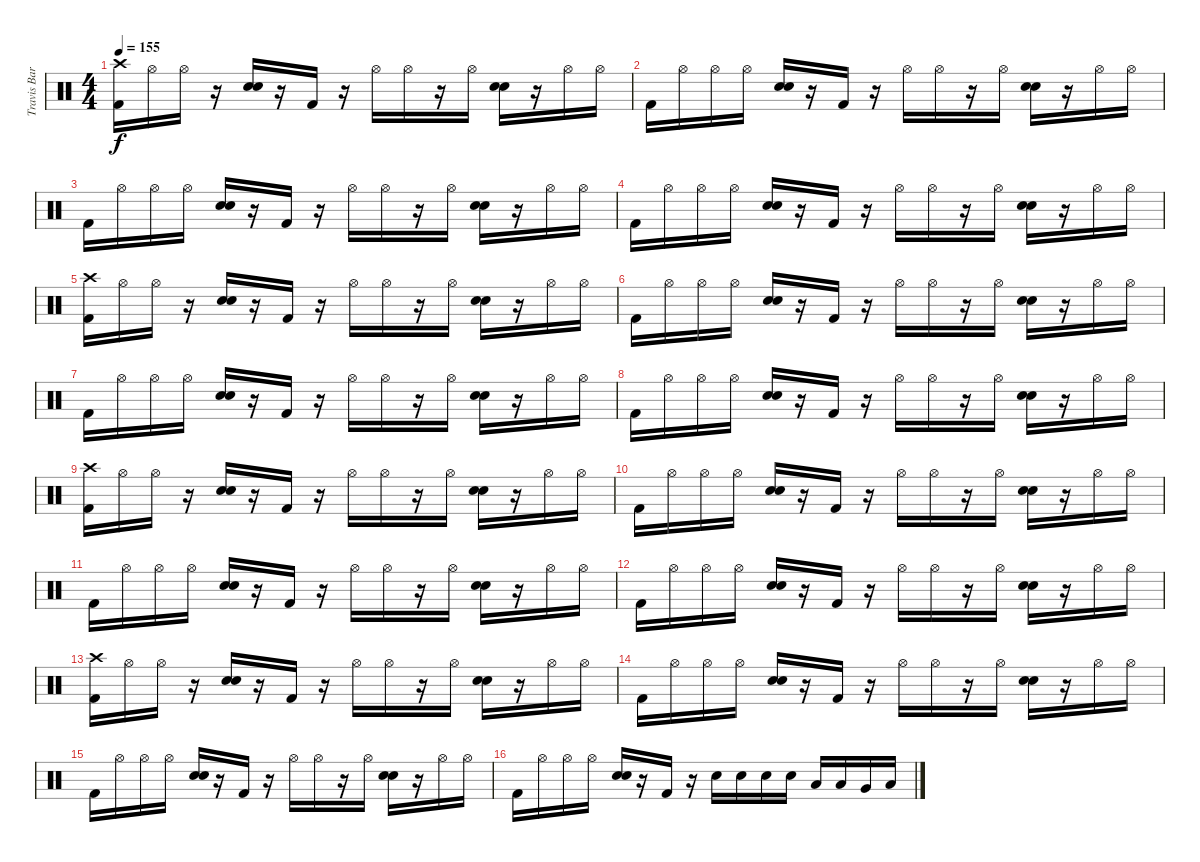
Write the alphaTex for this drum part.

\track ("Travis Barker Drums" "Travis Bar") {instrument percussion}
\staff {score}
\articulation defaults
\ts (4 4)
\tempo 155
\clef neutral
\ks c
("Crash high (hit)" "Kick (hit) 2").16{dy f} "Hi-Hat (open)".16 "Hi-Hat (open)".16 r.16 ("Hand Clap (hit)" "Snare (hit) 2").16 r.16 "Kick (hit) 2".16 r.16 "Hi-Hat (open)".16 "Hi-Hat (open)".16 r.16 "Hi-Hat (open)".16 ("Hand Clap (hit)" "Snare (hit) 2").16 r.16 "Hi-Hat (open)".16 "Hi-Hat (open)".16 |
"Kick (hit) 2".16 "Hi-Hat (open)".16 "Hi-Hat (open)".16 "Hi-Hat (open)".16 ("Hand Clap (hit)" "Snare (hit) 2").16 r.16 "Kick (hit) 2".16 r.16 "Hi-Hat (open)".16 "Hi-Hat (open)".16 r.16 "Hi-Hat (open)".16 ("Hand Clap (hit)" "Snare (hit) 2").16 r.16 "Hi-Hat (open)".16 "Hi-Hat (open)".16 |
"Kick (hit) 2".16 "Hi-Hat (open)".16 "Hi-Hat (open)".16 "Hi-Hat (open)".16 ("Hand Clap (hit)" "Snare (hit) 2").16 r.16 "Kick (hit) 2".16 r.16 "Hi-Hat (open)".16 "Hi-Hat (open)".16 r.16 "Hi-Hat (open)".16 ("Hand Clap (hit)" "Snare (hit) 2").16 r.16 "Hi-Hat (open)".16 "Hi-Hat (open)".16 |
"Kick (hit) 2".16 "Hi-Hat (open)".16 "Hi-Hat (open)".16 "Hi-Hat (open)".16 ("Hand Clap (hit)" "Snare (hit) 2").16 r.16 "Kick (hit) 2".16 r.16 "Hi-Hat (open)".16 "Hi-Hat (open)".16 r.16 "Hi-Hat (open)".16 ("Hand Clap (hit)" "Snare (hit) 2").16 r.16 "Hi-Hat (open)".16 "Hi-Hat (open)".16 |
("Crash high (hit)" "Kick (hit) 2").16 "Hi-Hat (open)".16 "Hi-Hat (open)".16 r.16 ("Hand Clap (hit)" "Snare (hit) 2").16 r.16 "Kick (hit) 2".16 r.16 "Hi-Hat (open)".16 "Hi-Hat (open)".16 r.16 "Hi-Hat (open)".16 ("Hand Clap (hit)" "Snare (hit) 2").16 r.16 "Hi-Hat (open)".16 "Hi-Hat (open)".16 |
"Kick (hit) 2".16 "Hi-Hat (open)".16 "Hi-Hat (open)".16 "Hi-Hat (open)".16 ("Hand Clap (hit)" "Snare (hit) 2").16 r.16 "Kick (hit) 2".16 r.16 "Hi-Hat (open)".16 "Hi-Hat (open)".16 r.16 "Hi-Hat (open)".16 ("Hand Clap (hit)" "Snare (hit) 2").16 r.16 "Hi-Hat (open)".16 "Hi-Hat (open)".16 |
"Kick (hit) 2".16 "Hi-Hat (open)".16 "Hi-Hat (open)".16 "Hi-Hat (open)".16 ("Hand Clap (hit)" "Snare (hit) 2").16 r.16 "Kick (hit) 2".16 r.16 "Hi-Hat (open)".16 "Hi-Hat (open)".16 r.16 "Hi-Hat (open)".16 ("Hand Clap (hit)" "Snare (hit) 2").16 r.16 "Hi-Hat (open)".16 "Hi-Hat (open)".16 |
"Kick (hit) 2".16 "Hi-Hat (open)".16 "Hi-Hat (open)".16 "Hi-Hat (open)".16 ("Hand Clap (hit)" "Snare (hit) 2").16 r.16 "Kick (hit) 2".16 r.16 "Hi-Hat (open)".16 "Hi-Hat (open)".16 r.16 "Hi-Hat (open)".16 ("Hand Clap (hit)" "Snare (hit) 2").16 r.16 "Hi-Hat (open)".16 "Hi-Hat (open)".16 |
("Crash high (hit)" "Kick (hit) 2").16 "Hi-Hat (open)".16 "Hi-Hat (open)".16 r.16 ("Hand Clap (hit)" "Snare (hit) 2").16 r.16 "Kick (hit) 2".16 r.16 "Hi-Hat (open)".16 "Hi-Hat (open)".16 r.16 "Hi-Hat (open)".16 ("Hand Clap (hit)" "Snare (hit) 2").16 r.16 "Hi-Hat (open)".16 "Hi-Hat (open)".16 |
"Kick (hit) 2".16 "Hi-Hat (open)".16 "Hi-Hat (open)".16 "Hi-Hat (open)".16 ("Hand Clap (hit)" "Snare (hit) 2").16 r.16 "Kick (hit) 2".16 r.16 "Hi-Hat (open)".16 "Hi-Hat (open)".16 r.16 "Hi-Hat (open)".16 ("Hand Clap (hit)" "Snare (hit) 2").16 r.16 "Hi-Hat (open)".16 "Hi-Hat (open)".16 |
"Kick (hit) 2".16 "Hi-Hat (open)".16 "Hi-Hat (open)".16 "Hi-Hat (open)".16 ("Hand Clap (hit)" "Snare (hit) 2").16 r.16 "Kick (hit) 2".16 r.16 "Hi-Hat (open)".16 "Hi-Hat (open)".16 r.16 "Hi-Hat (open)".16 ("Hand Clap (hit)" "Snare (hit) 2").16 r.16 "Hi-Hat (open)".16 "Hi-Hat (open)".16 |
"Kick (hit) 2".16 "Hi-Hat (open)".16 "Hi-Hat (open)".16 "Hi-Hat (open)".16 ("Hand Clap (hit)" "Snare (hit) 2").16 r.16 "Kick (hit) 2".16 r.16 "Hi-Hat (open)".16 "Hi-Hat (open)".16 r.16 "Hi-Hat (open)".16 ("Hand Clap (hit)" "Snare (hit) 2").16 r.16 "Hi-Hat (open)".16 "Hi-Hat (open)".16 |
("Crash high (hit)" "Kick (hit) 2").16 "Hi-Hat (open)".16 "Hi-Hat (open)".16 r.16 ("Hand Clap (hit)" "Snare (hit) 2").16 r.16 "Kick (hit) 2".16 r.16 "Hi-Hat (open)".16 "Hi-Hat (open)".16 r.16 "Hi-Hat (open)".16 ("Hand Clap (hit)" "Snare (hit) 2").16 r.16 "Hi-Hat (open)".16 "Hi-Hat (open)".16 |
"Kick (hit) 2".16 "Hi-Hat (open)".16 "Hi-Hat (open)".16 "Hi-Hat (open)".16 ("Hand Clap (hit)" "Snare (hit) 2").16 r.16 "Kick (hit) 2".16 r.16 "Hi-Hat (open)".16 "Hi-Hat (open)".16 r.16 "Hi-Hat (open)".16 ("Hand Clap (hit)" "Snare (hit) 2").16 r.16 "Hi-Hat (open)".16 "Hi-Hat (open)".16 |
"Kick (hit) 2".16 "Hi-Hat (open)".16 "Hi-Hat (open)".16 "Hi-Hat (open)".16 ("Hand Clap (hit)" "Snare (hit) 2").16 r.16 "Kick (hit) 2".16 r.16 "Hi-Hat (open)".16 "Hi-Hat (open)".16 r.16 "Hi-Hat (open)".16 ("Hand Clap (hit)" "Snare (hit) 2").16 r.16 "Hi-Hat (open)".16 "Hi-Hat (open)".16 |
"Kick (hit) 2".16 "Hi-Hat (open)".16 "Hi-Hat (open)".16 "Hi-Hat (open)".16 ("Hand Clap (hit)" "Snare (hit) 2").16 r.16 "Kick (hit) 2".16 r.16 "Snare (hit) 2".16 "Snare (hit) 2".16 "Snare (hit) 2".16 "Snare (hit) 2".16 "Low Tom (hit)".16 "Low Tom (hit)".16 "Very Low Tom (hit)".16 "Low Floor Tom (hit)".16
